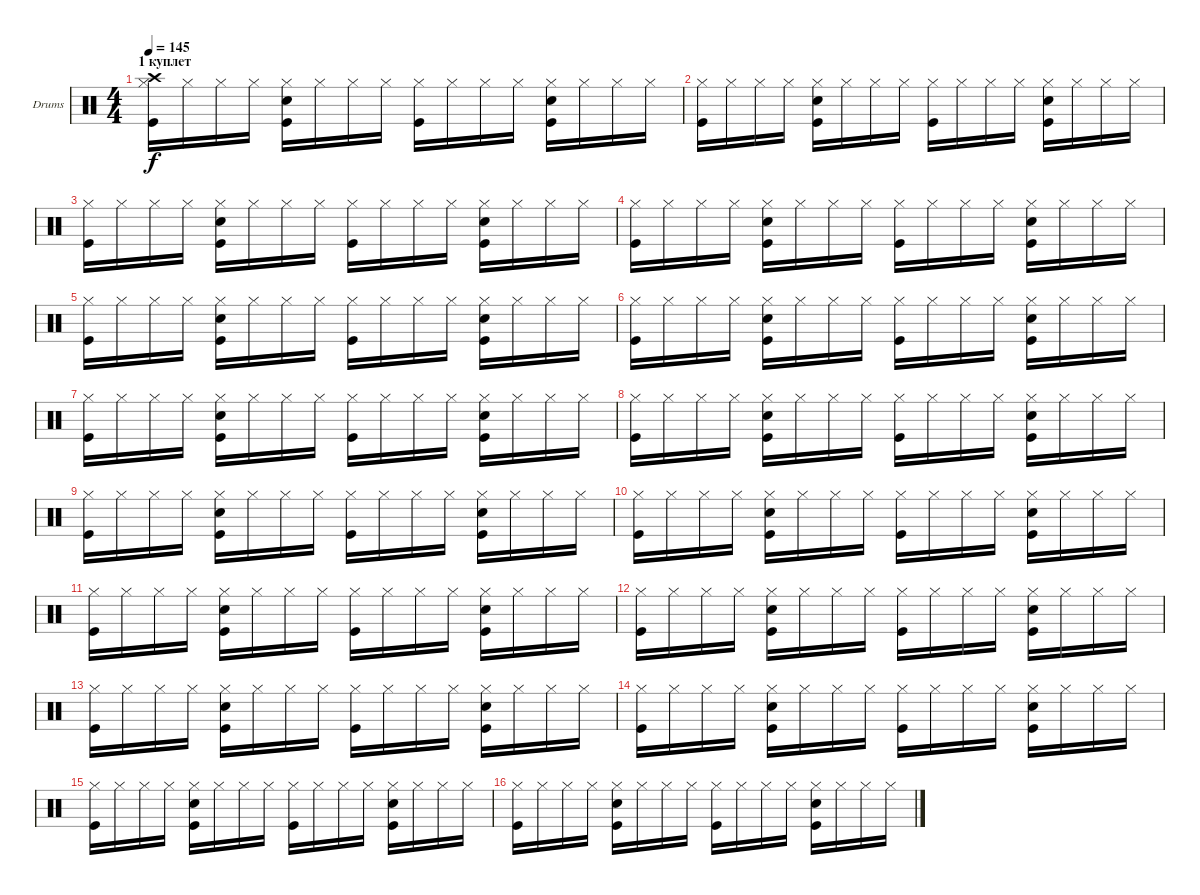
\defaultSystemsLayout 4
\bracketExtendMode groupsimilarinstruments
\firstSystemTrackNameOrientation horizontal
\otherSystemsTrackNameOrientation horizontal
\track ("Drumkit" "Drums") {instrument percussion}
\staff {score}
\articulation defaults
\ts (4 4)
\section ("" "1 куплет")
\tempo 145
\clef neutral
\ks c
("Hi-Hat (closed)" "Kick (hit)" "Crash high (hit)").16{dy f} "Hi-Hat (closed)".16 "Hi-Hat (closed)".16 "Hi-Hat (closed)".16 ("Hi-Hat (closed)" "Kick (hit)" "Snare (hit) 2").16 "Hi-Hat (closed)".16 "Hi-Hat (closed)".16 "Hi-Hat (closed)".16 ("Hi-Hat (closed)" "Kick (hit)").16 "Hi-Hat (closed)".16 "Hi-Hat (closed)".16 "Hi-Hat (closed)".16 ("Hi-Hat (closed)" "Kick (hit)" "Snare (hit) 2").16 "Hi-Hat (closed)".16 "Hi-Hat (closed)".16 "Hi-Hat (closed)".16 |
("Hi-Hat (closed)" "Kick (hit)").16 "Hi-Hat (closed)".16 "Hi-Hat (closed)".16 "Hi-Hat (closed)".16 ("Hi-Hat (closed)" "Kick (hit)" "Snare (hit) 2").16 "Hi-Hat (closed)".16 "Hi-Hat (closed)".16 "Hi-Hat (closed)".16 ("Hi-Hat (closed)" "Kick (hit)").16 "Hi-Hat (closed)".16 "Hi-Hat (closed)".16 "Hi-Hat (closed)".16 ("Hi-Hat (closed)" "Kick (hit)" "Snare (hit) 2").16 "Hi-Hat (closed)".16 "Hi-Hat (closed)".16 "Hi-Hat (closed)".16 |
("Hi-Hat (closed)" "Kick (hit)").16 "Hi-Hat (closed)".16 "Hi-Hat (closed)".16 "Hi-Hat (closed)".16 ("Hi-Hat (closed)" "Kick (hit)" "Snare (hit) 2").16 "Hi-Hat (closed)".16 "Hi-Hat (closed)".16 "Hi-Hat (closed)".16 ("Hi-Hat (closed)" "Kick (hit)").16 "Hi-Hat (closed)".16 "Hi-Hat (closed)".16 "Hi-Hat (closed)".16 ("Hi-Hat (closed)" "Kick (hit)" "Snare (hit) 2").16 "Hi-Hat (closed)".16 "Hi-Hat (closed)".16 "Hi-Hat (closed)".16 |
("Hi-Hat (closed)" "Kick (hit)").16 "Hi-Hat (closed)".16 "Hi-Hat (closed)".16 "Hi-Hat (closed)".16 ("Hi-Hat (closed)" "Kick (hit)" "Snare (hit) 2").16 "Hi-Hat (closed)".16 "Hi-Hat (closed)".16 "Hi-Hat (closed)".16 ("Hi-Hat (closed)" "Kick (hit)").16 "Hi-Hat (closed)".16 "Hi-Hat (closed)".16 "Hi-Hat (closed)".16 ("Hi-Hat (closed)" "Kick (hit)" "Snare (hit) 2").16 "Hi-Hat (closed)".16 "Hi-Hat (closed)".16 "Hi-Hat (closed)".16 |
("Hi-Hat (closed)" "Kick (hit)").16 "Hi-Hat (closed)".16 "Hi-Hat (closed)".16 "Hi-Hat (closed)".16 ("Hi-Hat (closed)" "Kick (hit)" "Snare (hit) 2").16 "Hi-Hat (closed)".16 "Hi-Hat (closed)".16 "Hi-Hat (closed)".16 ("Hi-Hat (closed)" "Kick (hit)").16 "Hi-Hat (closed)".16 "Hi-Hat (closed)".16 "Hi-Hat (closed)".16 ("Hi-Hat (closed)" "Kick (hit)" "Snare (hit) 2").16 "Hi-Hat (closed)".16 "Hi-Hat (closed)".16 "Hi-Hat (closed)".16 |
("Hi-Hat (closed)" "Kick (hit)").16 "Hi-Hat (closed)".16 "Hi-Hat (closed)".16 "Hi-Hat (closed)".16 ("Hi-Hat (closed)" "Kick (hit)" "Snare (hit) 2").16 "Hi-Hat (closed)".16 "Hi-Hat (closed)".16 "Hi-Hat (closed)".16 ("Hi-Hat (closed)" "Kick (hit)").16 "Hi-Hat (closed)".16 "Hi-Hat (closed)".16 "Hi-Hat (closed)".16 ("Hi-Hat (closed)" "Kick (hit)" "Snare (hit) 2").16 "Hi-Hat (closed)".16 "Hi-Hat (closed)".16 "Hi-Hat (closed)".16 |
("Hi-Hat (closed)" "Kick (hit)").16 "Hi-Hat (closed)".16 "Hi-Hat (closed)".16 "Hi-Hat (closed)".16 ("Hi-Hat (closed)" "Kick (hit)" "Snare (hit) 2").16 "Hi-Hat (closed)".16 "Hi-Hat (closed)".16 "Hi-Hat (closed)".16 ("Hi-Hat (closed)" "Kick (hit)").16 "Hi-Hat (closed)".16 "Hi-Hat (closed)".16 "Hi-Hat (closed)".16 ("Hi-Hat (closed)" "Kick (hit)" "Snare (hit) 2").16 "Hi-Hat (closed)".16 "Hi-Hat (closed)".16 "Hi-Hat (closed)".16 |
("Hi-Hat (closed)" "Kick (hit)").16 "Hi-Hat (closed)".16 "Hi-Hat (closed)".16 "Hi-Hat (closed)".16 ("Hi-Hat (closed)" "Kick (hit)" "Snare (hit) 2").16 "Hi-Hat (closed)".16 "Hi-Hat (closed)".16 "Hi-Hat (closed)".16 ("Hi-Hat (closed)" "Kick (hit)").16 "Hi-Hat (closed)".16 "Hi-Hat (closed)".16 "Hi-Hat (closed)".16 ("Hi-Hat (closed)" "Kick (hit)" "Snare (hit) 2").16 "Hi-Hat (closed)".16 "Hi-Hat (closed)".16 "Hi-Hat (closed)".16 |
("Hi-Hat (closed)" "Kick (hit)").16 "Hi-Hat (closed)".16 "Hi-Hat (closed)".16 "Hi-Hat (closed)".16 ("Hi-Hat (closed)" "Kick (hit)" "Snare (hit) 2").16 "Hi-Hat (closed)".16 "Hi-Hat (closed)".16 "Hi-Hat (closed)".16 ("Hi-Hat (closed)" "Kick (hit)").16 "Hi-Hat (closed)".16 "Hi-Hat (closed)".16 "Hi-Hat (closed)".16 ("Hi-Hat (closed)" "Kick (hit)" "Snare (hit) 2").16 "Hi-Hat (closed)".16 "Hi-Hat (closed)".16 "Hi-Hat (closed)".16 |
("Hi-Hat (closed)" "Kick (hit)").16 "Hi-Hat (closed)".16 "Hi-Hat (closed)".16 "Hi-Hat (closed)".16 ("Hi-Hat (closed)" "Kick (hit)" "Snare (hit) 2").16 "Hi-Hat (closed)".16 "Hi-Hat (closed)".16 "Hi-Hat (closed)".16 ("Hi-Hat (closed)" "Kick (hit)").16 "Hi-Hat (closed)".16 "Hi-Hat (closed)".16 "Hi-Hat (closed)".16 ("Hi-Hat (closed)" "Kick (hit)" "Snare (hit) 2").16 "Hi-Hat (closed)".16 "Hi-Hat (closed)".16 "Hi-Hat (closed)".16 |
("Hi-Hat (closed)" "Kick (hit)").16 "Hi-Hat (closed)".16 "Hi-Hat (closed)".16 "Hi-Hat (closed)".16 ("Hi-Hat (closed)" "Kick (hit)" "Snare (hit) 2").16 "Hi-Hat (closed)".16 "Hi-Hat (closed)".16 "Hi-Hat (closed)".16 ("Hi-Hat (closed)" "Kick (hit)").16 "Hi-Hat (closed)".16 "Hi-Hat (closed)".16 "Hi-Hat (closed)".16 ("Hi-Hat (closed)" "Kick (hit)" "Snare (hit) 2").16 "Hi-Hat (closed)".16 "Hi-Hat (closed)".16 "Hi-Hat (closed)".16 |
("Hi-Hat (closed)" "Kick (hit)").16 "Hi-Hat (closed)".16 "Hi-Hat (closed)".16 "Hi-Hat (closed)".16 ("Hi-Hat (closed)" "Kick (hit)" "Snare (hit) 2").16 "Hi-Hat (closed)".16 "Hi-Hat (closed)".16 "Hi-Hat (closed)".16 ("Hi-Hat (closed)" "Kick (hit)").16 "Hi-Hat (closed)".16 "Hi-Hat (closed)".16 "Hi-Hat (closed)".16 ("Hi-Hat (closed)" "Kick (hit)" "Snare (hit) 2").16 "Hi-Hat (closed)".16 "Hi-Hat (closed)".16 "Hi-Hat (closed)".16 |
("Hi-Hat (closed)" "Kick (hit)").16 "Hi-Hat (closed)".16 "Hi-Hat (closed)".16 "Hi-Hat (closed)".16 ("Hi-Hat (closed)" "Kick (hit)" "Snare (hit) 2").16 "Hi-Hat (closed)".16 "Hi-Hat (closed)".16 "Hi-Hat (closed)".16 ("Hi-Hat (closed)" "Kick (hit)").16 "Hi-Hat (closed)".16 "Hi-Hat (closed)".16 "Hi-Hat (closed)".16 ("Hi-Hat (closed)" "Kick (hit)" "Snare (hit) 2").16 "Hi-Hat (closed)".16 "Hi-Hat (closed)".16 "Hi-Hat (closed)".16 |
("Hi-Hat (closed)" "Kick (hit)").16 "Hi-Hat (closed)".16 "Hi-Hat (closed)".16 "Hi-Hat (closed)".16 ("Hi-Hat (closed)" "Kick (hit)" "Snare (hit) 2").16 "Hi-Hat (closed)".16 "Hi-Hat (closed)".16 "Hi-Hat (closed)".16 ("Hi-Hat (closed)" "Kick (hit)").16 "Hi-Hat (closed)".16 "Hi-Hat (closed)".16 "Hi-Hat (closed)".16 ("Hi-Hat (closed)" "Kick (hit)" "Snare (hit) 2").16 "Hi-Hat (closed)".16 "Hi-Hat (closed)".16 "Hi-Hat (closed)".16 |
("Hi-Hat (closed)" "Kick (hit)").16 "Hi-Hat (closed)".16 "Hi-Hat (closed)".16 "Hi-Hat (closed)".16 ("Hi-Hat (closed)" "Kick (hit)" "Snare (hit) 2").16 "Hi-Hat (closed)".16 "Hi-Hat (closed)".16 "Hi-Hat (closed)".16 ("Hi-Hat (closed)" "Kick (hit)").16 "Hi-Hat (closed)".16 "Hi-Hat (closed)".16 "Hi-Hat (closed)".16 ("Hi-Hat (closed)" "Kick (hit)" "Snare (hit) 2").16 "Hi-Hat (closed)".16 "Hi-Hat (closed)".16 "Hi-Hat (closed)".16 |
("Hi-Hat (closed)" "Kick (hit)").16 "Hi-Hat (closed)".16 "Hi-Hat (closed)".16 "Hi-Hat (closed)".16 ("Hi-Hat (closed)" "Kick (hit)" "Snare (hit) 2").16 "Hi-Hat (closed)".16 "Hi-Hat (closed)".16 "Hi-Hat (closed)".16 ("Hi-Hat (closed)" "Kick (hit)").16 "Hi-Hat (closed)".16 "Hi-Hat (closed)".16 "Hi-Hat (closed)".16 ("Hi-Hat (closed)" "Kick (hit)" "Snare (hit) 2").16 "Hi-Hat (closed)".16 "Hi-Hat (closed)".16 "Hi-Hat (closed)".16
